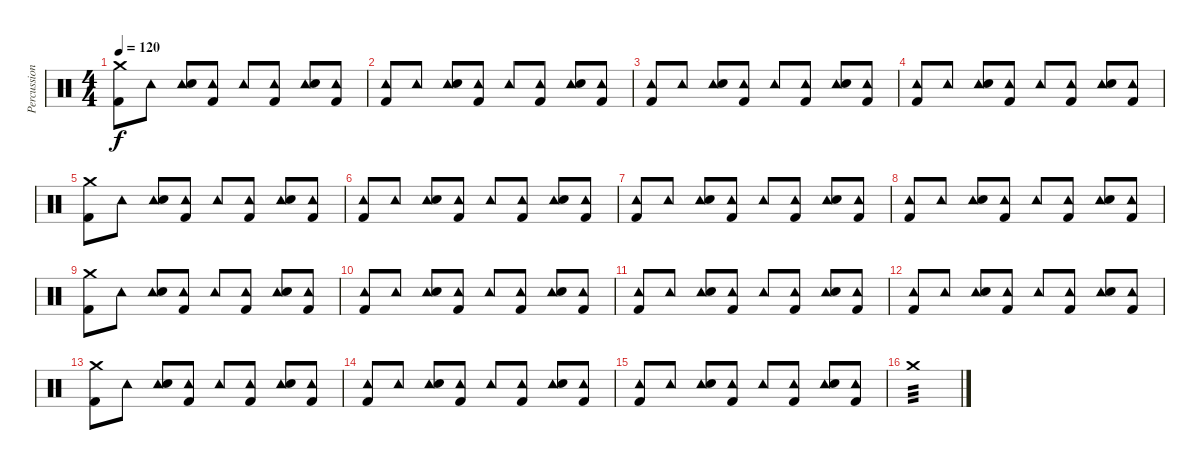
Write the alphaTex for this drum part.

\track ("Percussions" "Percussion") {instrument percussion}
\staff {score}
\articulation defaults
\ts (4 4)
\tempo 120
\clef neutral
\ks c
("Crash medium (hit)" "Kick (hit) 2").8{dy f} "Tambourine (hit)".8 ("Tambourine (hit)" "Electric Snare (hit)").8 ("Tambourine (hit)" "Kick (hit) 2").8 "Tambourine (hit)".8 ("Tambourine (hit)" "Kick (hit) 2").8 ("Tambourine (hit)" "Electric Snare (hit)").8 ("Tambourine (hit)" "Kick (hit) 2").8 |
("Tambourine (hit)" "Kick (hit) 2").8 "Tambourine (hit)".8 ("Tambourine (hit)" "Electric Snare (hit)").8 ("Tambourine (hit)" "Kick (hit) 2").8 "Tambourine (hit)".8 ("Tambourine (hit)" "Kick (hit) 2").8 ("Tambourine (hit)" "Electric Snare (hit)").8 ("Tambourine (hit)" "Kick (hit) 2").8 |
("Tambourine (hit)" "Kick (hit) 2").8 "Tambourine (hit)".8 ("Tambourine (hit)" "Electric Snare (hit)").8 ("Tambourine (hit)" "Kick (hit) 2").8 "Tambourine (hit)".8 ("Tambourine (hit)" "Kick (hit) 2").8 ("Tambourine (hit)" "Electric Snare (hit)").8 ("Tambourine (hit)" "Kick (hit) 2").8 |
("Tambourine (hit)" "Kick (hit) 2").8 "Tambourine (hit)".8 ("Tambourine (hit)" "Electric Snare (hit)").8 ("Tambourine (hit)" "Kick (hit) 2").8 "Tambourine (hit)".8 ("Tambourine (hit)" "Kick (hit) 2").8 ("Tambourine (hit)" "Electric Snare (hit)").8 ("Tambourine (hit)" "Kick (hit) 2").8 |
("Crash medium (hit)" "Kick (hit) 2").8 "Tambourine (hit)".8 ("Tambourine (hit)" "Electric Snare (hit)").8 ("Tambourine (hit)" "Kick (hit) 2").8 "Tambourine (hit)".8 ("Tambourine (hit)" "Kick (hit) 2").8 ("Tambourine (hit)" "Electric Snare (hit)").8 ("Tambourine (hit)" "Kick (hit) 2").8 |
("Tambourine (hit)" "Kick (hit) 2").8 "Tambourine (hit)".8 ("Tambourine (hit)" "Electric Snare (hit)").8 ("Tambourine (hit)" "Kick (hit) 2").8 "Tambourine (hit)".8 ("Tambourine (hit)" "Kick (hit) 2").8 ("Tambourine (hit)" "Electric Snare (hit)").8 ("Tambourine (hit)" "Kick (hit) 2").8 |
("Tambourine (hit)" "Kick (hit) 2").8 "Tambourine (hit)".8 ("Tambourine (hit)" "Electric Snare (hit)").8 ("Tambourine (hit)" "Kick (hit) 2").8 "Tambourine (hit)".8 ("Tambourine (hit)" "Kick (hit) 2").8 ("Tambourine (hit)" "Electric Snare (hit)").8 ("Tambourine (hit)" "Kick (hit) 2").8 |
("Tambourine (hit)" "Kick (hit) 2").8 "Tambourine (hit)".8 ("Tambourine (hit)" "Electric Snare (hit)").8 ("Tambourine (hit)" "Kick (hit) 2").8 "Tambourine (hit)".8 ("Tambourine (hit)" "Kick (hit) 2").8 ("Tambourine (hit)" "Electric Snare (hit)").8 ("Tambourine (hit)" "Kick (hit) 2").8 |
("Crash medium (hit)" "Kick (hit) 2").8 "Tambourine (hit)".8 ("Tambourine (hit)" "Electric Snare (hit)").8 ("Tambourine (hit)" "Kick (hit) 2").8 "Tambourine (hit)".8 ("Tambourine (hit)" "Kick (hit) 2").8 ("Tambourine (hit)" "Electric Snare (hit)").8 ("Tambourine (hit)" "Kick (hit) 2").8 |
("Tambourine (hit)" "Kick (hit) 2").8 "Tambourine (hit)".8 ("Tambourine (hit)" "Electric Snare (hit)").8 ("Tambourine (hit)" "Kick (hit) 2").8 "Tambourine (hit)".8 ("Tambourine (hit)" "Kick (hit) 2").8 ("Tambourine (hit)" "Electric Snare (hit)").8 ("Tambourine (hit)" "Kick (hit) 2").8 |
("Tambourine (hit)" "Kick (hit) 2").8 "Tambourine (hit)".8 ("Tambourine (hit)" "Electric Snare (hit)").8 ("Tambourine (hit)" "Kick (hit) 2").8 "Tambourine (hit)".8 ("Tambourine (hit)" "Kick (hit) 2").8 ("Tambourine (hit)" "Electric Snare (hit)").8 ("Tambourine (hit)" "Kick (hit) 2").8 |
("Tambourine (hit)" "Kick (hit) 2").8 "Tambourine (hit)".8 ("Tambourine (hit)" "Electric Snare (hit)").8 ("Tambourine (hit)" "Kick (hit) 2").8 "Tambourine (hit)".8 ("Tambourine (hit)" "Kick (hit) 2").8 ("Tambourine (hit)" "Electric Snare (hit)").8 ("Tambourine (hit)" "Kick (hit) 2").8 |
("Crash medium (hit)" "Kick (hit) 2").8 "Tambourine (hit)".8 ("Tambourine (hit)" "Electric Snare (hit)").8 ("Tambourine (hit)" "Kick (hit) 2").8 "Tambourine (hit)".8 ("Tambourine (hit)" "Kick (hit) 2").8 ("Tambourine (hit)" "Electric Snare (hit)").8 ("Tambourine (hit)" "Kick (hit) 2").8 |
("Tambourine (hit)" "Kick (hit) 2").8 "Tambourine (hit)".8 ("Tambourine (hit)" "Electric Snare (hit)").8 ("Tambourine (hit)" "Kick (hit) 2").8 "Tambourine (hit)".8 ("Tambourine (hit)" "Kick (hit) 2").8 ("Tambourine (hit)" "Electric Snare (hit)").8 ("Tambourine (hit)" "Kick (hit) 2").8 |
("Tambourine (hit)" "Kick (hit) 2").8 "Tambourine (hit)".8 ("Tambourine (hit)" "Electric Snare (hit)").8 ("Tambourine (hit)" "Kick (hit) 2").8 "Tambourine (hit)".8 ("Tambourine (hit)" "Kick (hit) 2").8 ("Tambourine (hit)" "Electric Snare (hit)").8 ("Tambourine (hit)" "Kick (hit) 2").8 |
"Crash medium (hit)".1{tp 3}
